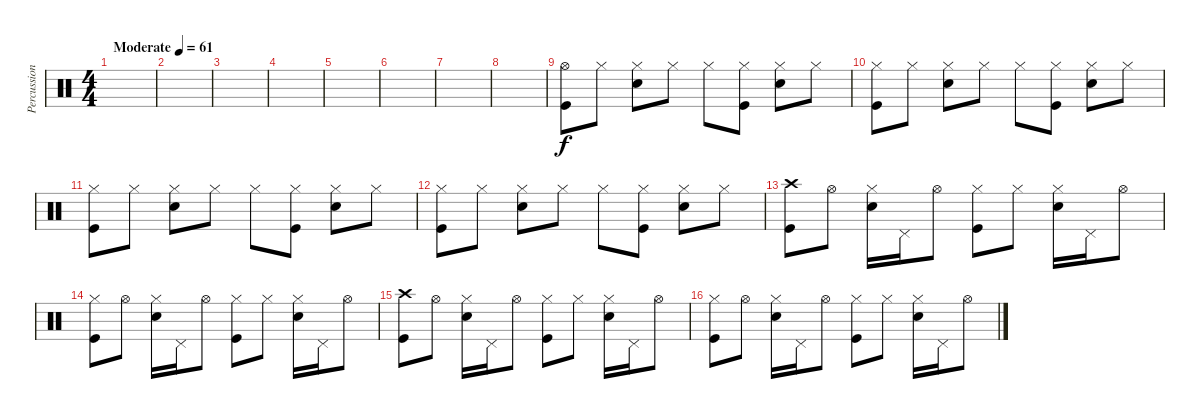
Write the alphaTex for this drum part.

\track ("Percussion" "Percussion") {instrument percussion}
\staff {score}
\articulation defaults
\ts (4 4)
\tempo (61 "Moderate")
\clef neutral
\ks c
|
|
|
|
|
|
|
|
("Kick (hit)" "Hi-Hat (open)").8 "Hi-Hat (closed)".8 ("Snare (hit) 2" "Hi-Hat (closed)").8 "Hi-Hat (closed)".8 "Hi-Hat (closed)".8 ("Kick (hit)" "Hi-Hat (closed)").8 ("Snare (hit) 2" "Hi-Hat (closed)").8 "Hi-Hat (closed)".8 |
("Kick (hit)" "Hi-Hat (closed)").8 "Hi-Hat (closed)".8 ("Snare (hit) 2" "Hi-Hat (closed)").8 "Hi-Hat (closed)".8 "Hi-Hat (closed)".8 ("Kick (hit)" "Hi-Hat (closed)").8 ("Snare (hit) 2" "Hi-Hat (closed)").8 "Hi-Hat (closed)".8 |
("Kick (hit)" "Hi-Hat (closed)").8 "Hi-Hat (closed)".8 ("Snare (hit) 2" "Hi-Hat (closed)").8 "Hi-Hat (closed)".8 "Hi-Hat (closed)".8 ("Kick (hit)" "Hi-Hat (closed)").8 ("Snare (hit) 2" "Hi-Hat (closed)").8 "Hi-Hat (closed)".8 |
("Kick (hit)" "Hi-Hat (closed)").8 "Hi-Hat (closed)".8 ("Snare (hit) 2" "Hi-Hat (closed)").8 "Hi-Hat (closed)".8 "Hi-Hat (closed)".8 ("Kick (hit)" "Hi-Hat (closed)").8 ("Snare (hit) 2" "Hi-Hat (closed)").8 "Hi-Hat (closed)".8 |
("Kick (hit)" "Crash high (hit)").8 "Hi-Hat (open)".8 ("Snare (hit) 2" "Hi-Hat (closed)").16 "Pedal Hi-Hat (hit)".16 "Hi-Hat (open)".8 ("Kick (hit)" "Hi-Hat (closed)").8 "Hi-Hat (closed)".8 ("Snare (hit) 2" "Hi-Hat (closed)").16 "Pedal Hi-Hat (hit)".16 "Hi-Hat (open)".8 |
("Kick (hit)" "Hi-Hat (closed)").8 "Hi-Hat (open)".8 ("Snare (hit) 2" "Hi-Hat (closed)").16 "Pedal Hi-Hat (hit)".16 "Hi-Hat (open)".8 ("Kick (hit)" "Hi-Hat (closed)").8 "Hi-Hat (closed)".8 ("Snare (hit) 2" "Hi-Hat (closed)").16 "Pedal Hi-Hat (hit)".16 "Hi-Hat (open)".8 |
("Kick (hit)" "Crash high (hit)").8 "Hi-Hat (open)".8 ("Snare (hit) 2" "Hi-Hat (closed)").16 "Pedal Hi-Hat (hit)".16 "Hi-Hat (open)".8 ("Kick (hit)" "Hi-Hat (closed)").8 "Hi-Hat (closed)".8 ("Snare (hit) 2" "Hi-Hat (closed)").16 "Pedal Hi-Hat (hit)".16 "Hi-Hat (open)".8 |
("Kick (hit)" "Hi-Hat (closed)").8 "Hi-Hat (open)".8 ("Snare (hit) 2" "Hi-Hat (closed)").16 "Pedal Hi-Hat (hit)".16 "Hi-Hat (open)".8 ("Kick (hit)" "Hi-Hat (closed)").8 "Hi-Hat (closed)".8 ("Snare (hit) 2" "Hi-Hat (closed)").16 "Pedal Hi-Hat (hit)".16 "Hi-Hat (open)".8
